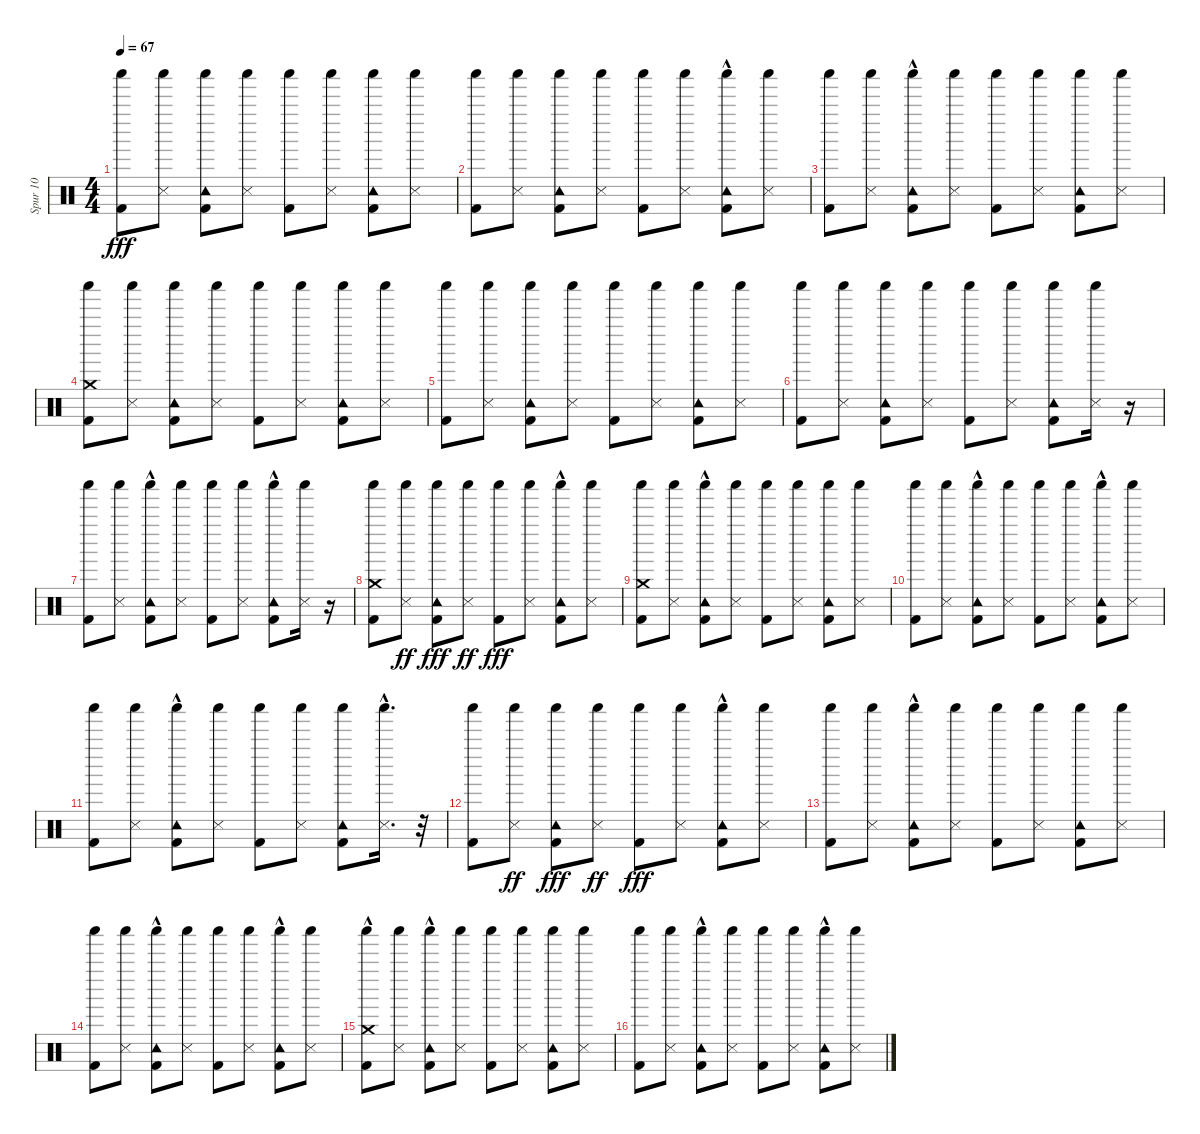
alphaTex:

\track ("Spur 10" "Spur 10") {instrument percussion}
\staff {score}
\articulation defaults
\ts (4 4)
\tempo 67
\clef neutral
\ks c
("Kick (hit) 2" "Shaker (hit)").8{dy fff} ("Snare (side stick) 3" "Shaker (hit)").8 ("Kick (hit) 2" "Tambourine (hit)" "Shaker (hit)").8 ("Snare (side stick) 3" "Shaker (hit)").8 ("Kick (hit) 2" "Shaker (hit)").8 ("Snare (side stick) 3" "Shaker (hit)").8 ("Kick (hit) 2" "Tambourine (hit)" "Shaker (hit)").8 ("Snare (side stick) 3" "Shaker (hit)").8 |
("Kick (hit) 2" "Shaker (hit)").8 ("Snare (side stick) 3" "Shaker (hit)").8 ("Kick (hit) 2" "Tambourine (hit)" "Shaker (hit)").8 ("Snare (side stick) 3" "Shaker (hit)").8 ("Kick (hit) 2" "Shaker (hit)").8 ("Snare (side stick) 3" "Shaker (hit)").8 ("Kick (hit) 2" "Tambourine (hit)"{hac} "Shaker (hit)").8 ("Snare (side stick) 3" "Shaker (hit)").8 |
("Kick (hit) 2" "Shaker (hit)").8 ("Snare (side stick) 3" "Shaker (hit)").8 ("Kick (hit) 2" "Tambourine (hit)"{hac} "Shaker (hit)").8 ("Snare (side stick) 3" "Shaker (hit)").8 ("Kick (hit) 2" "Shaker (hit)").8 ("Snare (side stick) 3" "Shaker (hit)").8 ("Kick (hit) 2" "Tambourine (hit)" "Shaker (hit)").8 ("Snare (side stick) 3" "Shaker (hit)").8 |
("Kick (hit) 2" "Crash medium (hit)" "Shaker (hit)").8 ("Snare (side stick) 3" "Shaker (hit)").8 ("Kick (hit) 2" "Tambourine (hit)" "Shaker (hit)").8 ("Snare (side stick) 3" "Shaker (hit)").8 ("Kick (hit) 2" "Shaker (hit)").8 ("Snare (side stick) 3" "Shaker (hit)").8 ("Kick (hit) 2" "Tambourine (hit)" "Shaker (hit)").8 ("Snare (side stick) 3" "Shaker (hit)").8 |
("Kick (hit) 2" "Shaker (hit)").8 ("Snare (side stick) 3" "Shaker (hit)").8 ("Kick (hit) 2" "Tambourine (hit)" "Shaker (hit)").8 ("Snare (side stick) 3" "Shaker (hit)").8 ("Kick (hit) 2" "Shaker (hit)").8 ("Snare (side stick) 3" "Shaker (hit)").8 ("Kick (hit) 2" "Tambourine (hit)" "Shaker (hit)").8 ("Snare (side stick) 3" "Shaker (hit)").8 |
("Kick (hit) 2" "Shaker (hit)").8 ("Snare (side stick) 3" "Shaker (hit)").8 ("Kick (hit) 2" "Tambourine (hit)" "Shaker (hit)").8 ("Snare (side stick) 3" "Shaker (hit)").8 ("Kick (hit) 2" "Shaker (hit)").8 ("Snare (side stick) 3" "Shaker (hit)").8 ("Kick (hit) 2" "Tambourine (hit)" "Shaker (hit)").8 ("Snare (side stick) 3" "Shaker (hit)").16 r.16 |
("Kick (hit) 2" "Shaker (hit)").8 ("Snare (side stick) 3" "Shaker (hit)").8 ("Kick (hit) 2" "Tambourine (hit)"{hac} "Shaker (hit)").8 ("Snare (side stick) 3" "Shaker (hit)").8 ("Kick (hit) 2" "Shaker (hit)").8 ("Snare (side stick) 3" "Shaker (hit)").8 ("Kick (hit) 2"{hac} "Tambourine (hit)" "Shaker (hit)").8 ("Snare (side stick) 3" "Shaker (hit)").16 r.16 |
("Kick (hit) 2" "Crash medium (hit)" "Shaker (hit)").8 ("Snare (side stick) 3" "Shaker (hit)").8{dy ff} ("Kick (hit) 2" "Tambourine (hit)" "Shaker (hit)").8{dy fff} ("Snare (side stick) 3" "Shaker (hit)").8{dy ff} ("Kick (hit) 2" "Shaker (hit)").8{dy fff} ("Snare (side stick) 3" "Shaker (hit)").8 ("Kick (hit) 2" "Tambourine (hit)"{hac} "Shaker (hit)").8 ("Snare (side stick) 3" "Shaker (hit)").8 |
("Kick (hit) 2" "Crash medium (hit)" "Shaker (hit)").8 ("Snare (side stick) 3" "Shaker (hit)").8 ("Kick (hit) 2" "Tambourine (hit)"{hac} "Shaker (hit)").8 ("Snare (side stick) 3" "Shaker (hit)").8 ("Kick (hit) 2" "Shaker (hit)").8 ("Snare (side stick) 3" "Shaker (hit)").8 ("Kick (hit) 2" "Tambourine (hit)" "Shaker (hit)").8 ("Snare (side stick) 3" "Shaker (hit)").8 |
("Kick (hit) 2" "Shaker (hit)").8 ("Snare (side stick) 3" "Shaker (hit)").8 ("Kick (hit) 2" "Tambourine (hit)"{hac} "Shaker (hit)").8 ("Snare (side stick) 3" "Shaker (hit)").8 ("Kick (hit) 2" "Shaker (hit)").8 ("Snare (side stick) 3" "Shaker (hit)").8 ("Kick (hit) 2" "Tambourine (hit)"{hac} "Shaker (hit)").8 ("Snare (side stick) 3" "Shaker (hit)").8 |
("Kick (hit) 2" "Shaker (hit)").8 ("Snare (side stick) 3" "Shaker (hit)").8 ("Kick (hit) 2" "Tambourine (hit)"{hac} "Shaker (hit)").8 ("Snare (side stick) 3" "Shaker (hit)").8 ("Kick (hit) 2" "Shaker (hit)").8 ("Snare (side stick) 3" "Shaker (hit)").8 ("Kick (hit) 2" "Tambourine (hit)" "Shaker (hit)").8 ("Snare (side stick) 3"{hac} "Shaker (hit)").16{d} r.32 |
("Kick (hit) 2" "Shaker (hit)").8 ("Snare (side stick) 3" "Shaker (hit)").8{dy ff} ("Kick (hit) 2" "Tambourine (hit)" "Shaker (hit)").8{dy fff} ("Snare (side stick) 3" "Shaker (hit)").8{dy ff} ("Kick (hit) 2" "Shaker (hit)").8{dy fff} ("Snare (side stick) 3" "Shaker (hit)").8 ("Kick (hit) 2" "Tambourine (hit)"{hac} "Shaker (hit)").8 ("Snare (side stick) 3" "Shaker (hit)").8 |
("Kick (hit) 2" "Shaker (hit)").8 ("Snare (side stick) 3" "Shaker (hit)").8 ("Kick (hit) 2" "Tambourine (hit)"{hac} "Shaker (hit)").8 ("Snare (side stick) 3" "Shaker (hit)").8 ("Kick (hit) 2" "Shaker (hit)").8 ("Snare (side stick) 3" "Shaker (hit)").8 ("Kick (hit) 2" "Tambourine (hit)" "Shaker (hit)").8 ("Snare (side stick) 3" "Shaker (hit)").8 |
("Kick (hit) 2" "Shaker (hit)").8 ("Snare (side stick) 3" "Shaker (hit)").8 ("Kick (hit) 2" "Tambourine (hit)"{hac} "Shaker (hit)").8 ("Snare (side stick) 3" "Shaker (hit)").8 ("Kick (hit) 2" "Shaker (hit)").8 ("Snare (side stick) 3" "Shaker (hit)").8 ("Kick (hit) 2" "Tambourine (hit)"{hac} "Shaker (hit)").8 ("Snare (side stick) 3" "Shaker (hit)").8 |
("Kick (hit) 2" "Crash medium (hit)"{hac} "Shaker (hit)").8 ("Snare (side stick) 3" "Shaker (hit)").8 ("Kick (hit) 2" "Tambourine (hit)"{hac} "Shaker (hit)").8 ("Snare (side stick) 3" "Shaker (hit)").8 ("Kick (hit) 2" "Shaker (hit)").8 ("Snare (side stick) 3" "Shaker (hit)").8 ("Kick (hit) 2" "Tambourine (hit)" "Shaker (hit)").8 ("Snare (side stick) 3" "Shaker (hit)").8 |
("Kick (hit) 2" "Shaker (hit)").8 ("Snare (side stick) 3" "Shaker (hit)").8 ("Kick (hit) 2" "Tambourine (hit)"{hac} "Shaker (hit)").8 ("Snare (side stick) 3" "Shaker (hit)").8 ("Kick (hit) 2" "Shaker (hit)").8 ("Snare (side stick) 3" "Shaker (hit)").8 ("Kick (hit) 2" "Tambourine (hit)"{hac} "Shaker (hit)").8 ("Snare (side stick) 3" "Shaker (hit)").8
